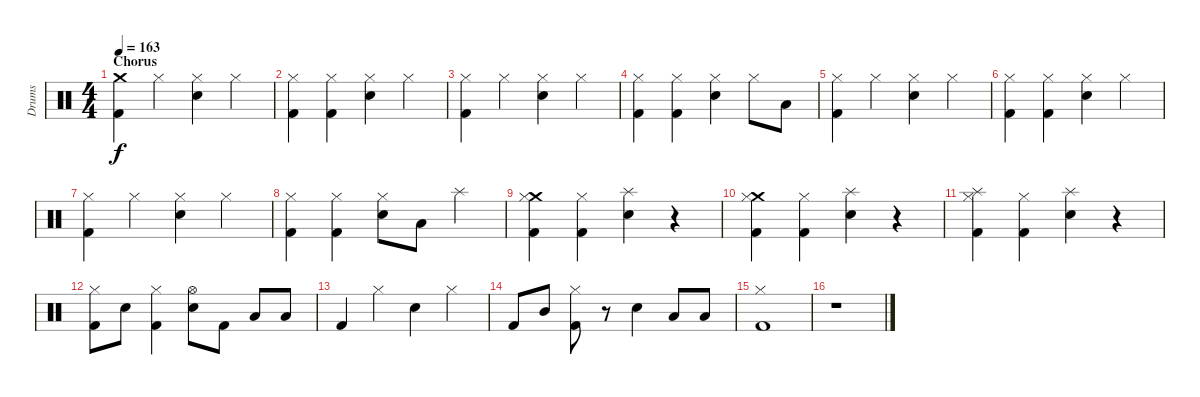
\track ("Drums" "Drums") {instrument percussion}
\staff {score}
\articulation defaults
\ts (4 4)
\section ("" "Chorus")
\tempo 163
\clef neutral
\ks c
("Crash medium (hit)" "Kick (hit) 2").4{dy f} "Hi-Hat (closed)".4 ("Hi-Hat (closed)" "Snare (hit) 2").4 "Hi-Hat (closed)".4 |
("Hi-Hat (closed)" "Kick (hit) 2").4 ("Hi-Hat (closed)" "Kick (hit) 2").4 ("Hi-Hat (closed)" "Snare (hit) 2").4 "Hi-Hat (closed)".4 |
("Hi-Hat (closed)" "Kick (hit) 2").4 "Hi-Hat (closed)".4 ("Hi-Hat (closed)" "Snare (hit) 2").4 "Hi-Hat (closed)".4 |
("Hi-Hat (closed)" "Kick (hit) 2").4 ("Hi-Hat (closed)" "Kick (hit) 2").4 ("Hi-Hat (closed)" "Snare (hit) 2").4 "Hi-Hat (closed)".8 "Low Tom (hit)".8 |
("Hi-Hat (closed)" "Kick (hit) 2").4 "Hi-Hat (closed)".4 ("Hi-Hat (closed)" "Snare (hit) 2").4 "Hi-Hat (closed)".4 |
("Hi-Hat (closed)" "Kick (hit) 2").4 ("Hi-Hat (closed)" "Kick (hit) 2").4 ("Hi-Hat (closed)" "Snare (hit) 2").4 "Hi-Hat (closed)".4 |
("Hi-Hat (closed)" "Kick (hit) 2").4 "Hi-Hat (closed)".4 ("Hi-Hat (closed)" "Snare (hit) 2").4 "Hi-Hat (closed)".4 |
("Hi-Hat (closed)" "Kick (hit) 2").4 ("Hi-Hat (closed)" "Kick (hit) 2").4 ("Hi-Hat (closed)" "Snare (hit) 2").8 "Low Tom (hit)".8 "Splash (hit)".4 |
("Crash medium (hit)" "Kick (hit) 2" "Hi-Hat (closed)").4 ("Kick (hit) 2" "Hi-Hat (closed)").4 ("Splash (hit)" "Snare (hit) 2").4 r.4 |
("Crash medium (hit)" "Kick (hit) 2" "Hi-Hat (closed)").4 ("Kick (hit) 2" "Hi-Hat (closed)").4 ("Splash (hit)" "Snare (hit) 2").4 r.4 |
("Splash (hit)" "Kick (hit) 2" "Hi-Hat (closed)").4 ("Kick (hit) 2" "Hi-Hat (closed)").4 ("Splash (hit)" "Snare (hit) 2").4 r.4 |
("Kick (hit) 2" "Hi-Hat (closed)").8 "Snare (hit) 2".8 ("Kick (hit) 2" "Hi-Hat (closed)").4 ("Hi-Hat (open)" "Snare (hit) 2").8 "Kick (hit) 2".8 "Low Tom (hit)".8 "Low Tom (hit)".8 |
"Kick (hit) 2".4 "Hi-Hat (closed)".4 "Snare (hit) 2".4 "Hi-Hat (closed)".4 |
"Kick (hit) 2".8 "Mid Tom (hit)".8 ("Hi-Hat (closed)" "Kick (hit) 2").8 r.8 "Snare (hit) 2".4 "Low Tom (hit)".8 "Low Tom (hit)".8 |
("Hi-Hat (closed)" "Kick (hit) 2").1 |
r.1
